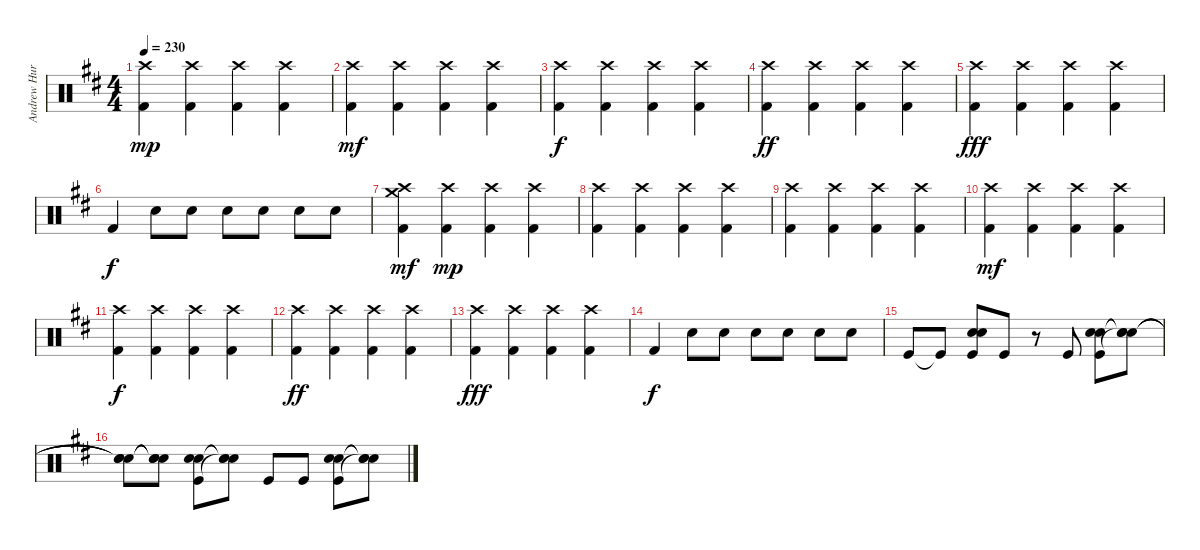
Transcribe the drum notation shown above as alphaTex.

\track ("Andrew Hurley" "Andrew Hur") {instrument percussion}
\staff {score}
\articulation defaults
\ts (4 4)
\tempo 230
\clef neutral
\ks d
("Crash high (hit)" "Kick (hit) 2").4{dy mp} ("Crash high (hit)" "Kick (hit) 2").4 ("Crash high (hit)" "Kick (hit) 2").4 ("Crash high (hit)" "Kick (hit) 2").4 |
("Crash high (hit)" "Kick (hit) 2").4{dy mf} ("Crash high (hit)" "Kick (hit) 2").4 ("Crash high (hit)" "Kick (hit) 2").4 ("Crash high (hit)" "Kick (hit) 2").4 |
("Crash high (hit)" "Kick (hit) 2").4{dy f} ("Crash high (hit)" "Kick (hit) 2").4 ("Crash high (hit)" "Kick (hit) 2").4 ("Crash high (hit)" "Kick (hit) 2").4 |
("Crash high (hit)" "Kick (hit) 2").4{dy ff} ("Crash high (hit)" "Kick (hit) 2").4 ("Crash high (hit)" "Kick (hit) 2").4 ("Crash high (hit)" "Kick (hit) 2").4 |
("Crash high (hit)" "Kick (hit) 2").4{dy fff} ("Crash high (hit)" "Kick (hit) 2").4 ("Crash high (hit)" "Kick (hit) 2").4 ("Crash high (hit)" "Kick (hit) 2").4 |
"Kick (hit) 2".4{dy f} "Electric Snare (hit)".8 "Electric Snare (hit)".8 "Electric Snare (hit)".8 "Electric Snare (hit)".8 "Electric Snare (hit)".8 "Electric Snare (hit)".8 |
("Crash high (hit)" "Crash medium (hit)" "Kick (hit) 2").4{dy mf} ("Crash high (hit)" "Kick (hit) 2").4{dy mp} ("Crash high (hit)" "Kick (hit) 2").4 ("Crash high (hit)" "Kick (hit) 2").4 |
("Crash high (hit)" "Kick (hit) 2").4 ("Crash high (hit)" "Kick (hit) 2").4 ("Crash high (hit)" "Kick (hit) 2").4 ("Crash high (hit)" "Kick (hit) 2").4 |
("Crash high (hit)" "Kick (hit) 2").4 ("Crash high (hit)" "Kick (hit) 2").4 ("Crash high (hit)" "Kick (hit) 2").4 ("Crash high (hit)" "Kick (hit) 2").4 |
("Crash high (hit)" "Kick (hit) 2").4{dy mf} ("Crash high (hit)" "Kick (hit) 2").4 ("Crash high (hit)" "Kick (hit) 2").4 ("Crash high (hit)" "Kick (hit) 2").4 |
("Crash high (hit)" "Kick (hit) 2").4{dy f} ("Crash high (hit)" "Kick (hit) 2").4 ("Crash high (hit)" "Kick (hit) 2").4 ("Crash high (hit)" "Kick (hit) 2").4 |
("Crash high (hit)" "Kick (hit) 2").4{dy ff} ("Crash high (hit)" "Kick (hit) 2").4 ("Crash high (hit)" "Kick (hit) 2").4 ("Crash high (hit)" "Kick (hit) 2").4 |
("Crash high (hit)" "Kick (hit) 2").4{dy fff} ("Crash high (hit)" "Kick (hit) 2").4 ("Crash high (hit)" "Kick (hit) 2").4 ("Crash high (hit)" "Kick (hit) 2").4 |
"Kick (hit) 2".4{dy f} "Electric Snare (hit)".8 "Electric Snare (hit)".8 "Electric Snare (hit)".8 "Electric Snare (hit)".8 "Electric Snare (hit)".8 "Electric Snare (hit)".8 |
"Kick (hit)".8 "Kick (hit)"{t}.8 ("Kick (hit)" "Snare (hit) 2" "Electric Snare (hit)").8 "Kick (hit)".8 r.8 "Kick (hit)".8 ("Electric Snare (hit)" "Snare (hit) 2" "Kick (hit)").8 ("Snare (hit)"{t} "Snare (hit)"{t} "Snare (hit)"{t}).8 |
("Snare (hit)"{t} "Snare (hit)"{t} "Snare (hit)"{t}).8 ("Snare (hit)"{t} "Snare (hit)"{t} "Snare (hit)"{t}).8 ("Electric Snare (hit)" "Snare (hit) 2" "Kick (hit)").8 ("Snare (hit)"{t} "Snare (hit)"{t} "Snare (hit)"{t}).8 "Kick (hit)".8 "Kick (hit)".8 ("Electric Snare (hit)" "Snare (hit) 2" "Kick (hit)").8 ("Snare (hit)"{t} "Snare (hit)"{t} "Snare (hit)"{t}).8
